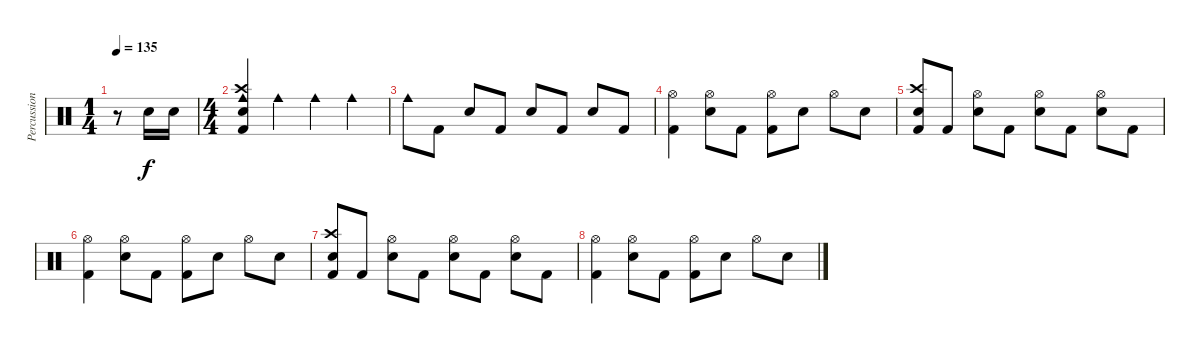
\track ("Percussion" "Percussion") {instrument percussion}
\staff {score}
\articulation defaults
\ts (1 4)
\tempo 135
\clef neutral
\ks c
r.8{dy f} "Snare (hit) 2".16 "Snare (hit) 2".16 |
\ts (4 4)
("Crash high (hit)" "Cowbell medium (hit)" "Kick (hit) 2" "Snare (hit) 2").4 "Cowbell medium (hit)".4 "Cowbell medium (hit)".4 "Cowbell medium (hit)".4 |
"Cowbell medium (hit)".8 "Kick (hit) 2".8 "Snare (hit) 2".8 "Kick (hit) 2".8 "Snare (hit) 2".8 "Kick (hit) 2".8 "Snare (hit) 2".8 "Kick (hit) 2".8 |
("Hi-Hat (open)" "Kick (hit) 2").4 ("Hi-Hat (open)" "Snare (hit) 2").8 "Kick (hit) 2".8 ("Hi-Hat (open)" "Kick (hit) 2").8 "Snare (hit) 2".8 "Hi-Hat (open)".8 "Snare (hit) 2".8 |
("Crash high (hit)" "Kick (hit) 2" "Snare (hit) 2").8 "Kick (hit) 2".8 ("Hi-Hat (open)" "Snare (hit) 2").8 "Kick (hit) 2".8 ("Hi-Hat (open)" "Snare (hit) 2").8 "Kick (hit) 2".8 ("Hi-Hat (open)" "Snare (hit) 2").8 "Kick (hit) 2".8 |
("Hi-Hat (open)" "Kick (hit) 2").4 ("Hi-Hat (open)" "Snare (hit) 2").8 "Kick (hit) 2".8 ("Hi-Hat (open)" "Kick (hit) 2").8 "Snare (hit) 2".8 "Hi-Hat (open)".8 "Snare (hit) 2".8 |
("Crash high (hit)" "Kick (hit) 2" "Snare (hit) 2").8 "Kick (hit) 2".8 ("Hi-Hat (open)" "Snare (hit) 2").8 "Kick (hit) 2".8 ("Hi-Hat (open)" "Snare (hit) 2").8 "Kick (hit) 2".8 ("Hi-Hat (open)" "Snare (hit) 2").8 "Kick (hit) 2".8 |
("Hi-Hat (open)" "Kick (hit) 2").4 ("Hi-Hat (open)" "Snare (hit) 2").8 "Kick (hit) 2".8 ("Hi-Hat (open)" "Kick (hit) 2").8 "Snare (hit) 2".8 "Hi-Hat (open)".8 "Snare (hit) 2".8
